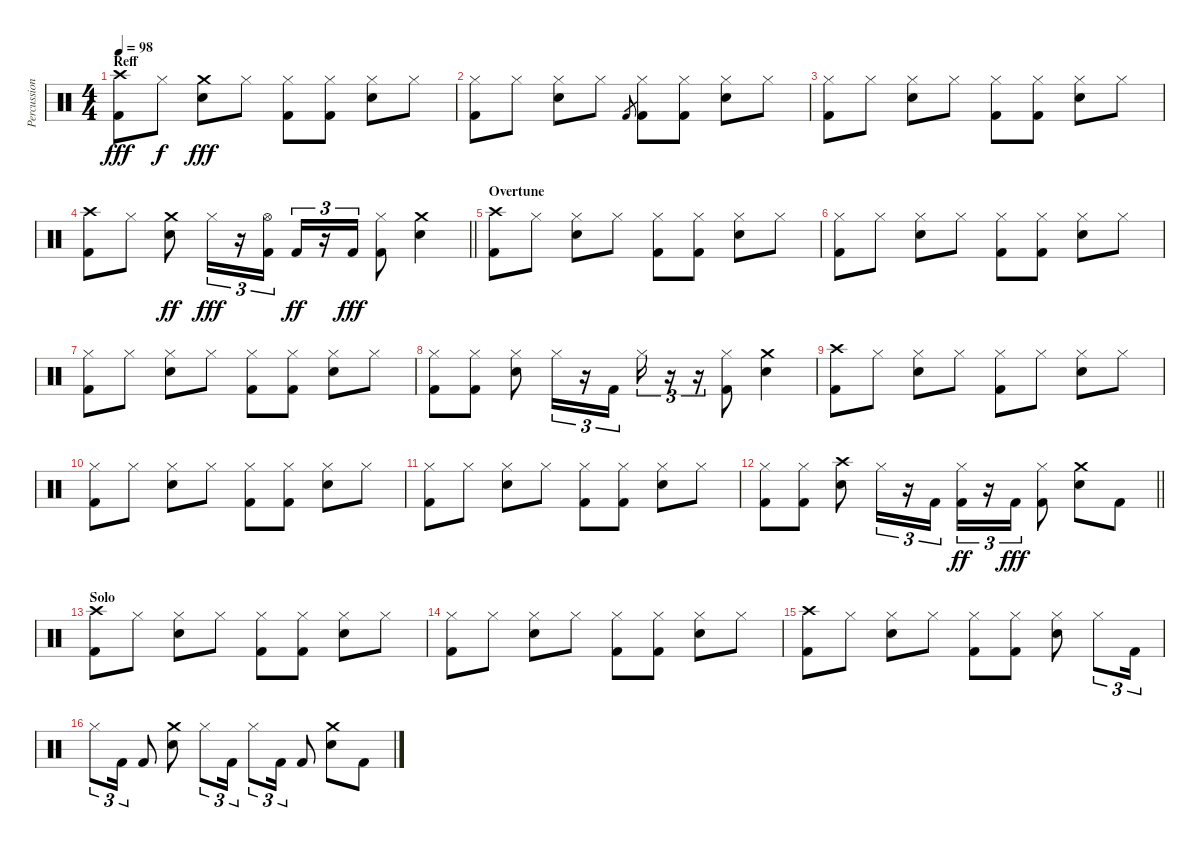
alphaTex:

\track ("Percussion" "Percussion") {instrument percussion}
\staff {score}
\articulation defaults
\ts (4 4)
\section ("" "Reff")
\tempo 98
\clef neutral
\ks c
("Crash high (hit)" "Kick (hit) 2").8{dy fff} "Hi-Hat (closed)".8{dy f} ("Crash medium (hit)" "Snare (hit) 2").8{dy fff} "Hi-Hat (closed)".8 ("Hi-Hat (closed)" "Kick (hit) 2").8 ("Hi-Hat (closed)" "Kick (hit) 2").8 ("Hi-Hat (closed)" "Snare (hit) 2").8 "Hi-Hat (closed)".8 |
("Hi-Hat (closed)" "Kick (hit) 2").8 "Hi-Hat (closed)".8 ("Hi-Hat (closed)" "Snare (hit) 2").8 "Hi-Hat (closed)".8 "Kick (hit) 2".8{gr} ("Hi-Hat (closed)" "Kick (hit) 2").8 ("Hi-Hat (closed)" "Kick (hit) 2").8 ("Hi-Hat (closed)" "Snare (hit) 2").8 "Hi-Hat (closed)".8 |
("Hi-Hat (closed)" "Kick (hit) 2").8 "Hi-Hat (closed)".8 ("Hi-Hat (closed)" "Snare (hit) 2").8 "Hi-Hat (closed)".8 ("Hi-Hat (closed)" "Kick (hit) 2").8 ("Hi-Hat (closed)" "Kick (hit) 2").8 ("Hi-Hat (closed)" "Snare (hit) 2").8 "Hi-Hat (closed)".8 |
\barLineRight lightlight
("Crash high (hit)" "Kick (hit) 2").8 "Hi-Hat (closed)".8 ("Crash medium (hit)" "Snare (hit) 2").8{dy ff} "Hi-Hat (closed)".16{tu (3 2) dy fff} r.16{tu (3 2)} ("Hi-Hat (open)" "Kick (hit) 2").16{tu (3 2)} "Kick (hit) 2".16{tu (3 2) dy ff} r.16{tu (3 2)} "Kick (hit) 2".16{tu (3 2) dy fff} ("Hi-Hat (closed)" "Kick (hit) 2").8 ("Crash medium (hit)" "Snare (hit) 2").4 |
\section ("" "Overtune")
("Crash high (hit)" "Kick (hit) 2").8 "Hi-Hat (closed)".8 ("Hi-Hat (closed)" "Snare (hit) 2").8 "Hi-Hat (closed)".8 ("Hi-Hat (closed)" "Kick (hit) 2").8 ("Hi-Hat (closed)" "Kick (hit) 2").8 ("Hi-Hat (closed)" "Snare (hit) 2").8 "Hi-Hat (closed)".8 |
("Hi-Hat (closed)" "Kick (hit) 2").8 "Hi-Hat (closed)".8 ("Hi-Hat (closed)" "Snare (hit) 2").8 "Hi-Hat (closed)".8 ("Hi-Hat (closed)" "Kick (hit) 2").8 ("Hi-Hat (closed)" "Kick (hit) 2").8 ("Hi-Hat (closed)" "Snare (hit) 2").8 "Hi-Hat (closed)".8 |
("Hi-Hat (closed)" "Kick (hit) 2").8 "Hi-Hat (closed)".8 ("Hi-Hat (closed)" "Snare (hit) 2").8 "Hi-Hat (closed)".8 ("Hi-Hat (closed)" "Kick (hit) 2").8 ("Hi-Hat (closed)" "Kick (hit) 2").8 ("Hi-Hat (closed)" "Snare (hit) 2").8 "Hi-Hat (closed)".8 |
("Hi-Hat (closed)" "Kick (hit) 2").8 ("Hi-Hat (closed)" "Kick (hit) 2").8 ("Hi-Hat (closed)" "Snare (hit) 2").8 "Hi-Hat (closed)".16{tu (3 2)} r.16{tu (3 2)} "Kick (hit) 2".16{tu (3 2)} "Hi-Hat (closed)".16{tu (3 2)} r.16{tu (3 2)} r.16{tu (3 2)} ("Hi-Hat (closed)" "Kick (hit) 2").8 ("Crash medium (hit)" "Snare (hit) 2").4 |
("Crash high (hit)" "Kick (hit) 2").8 "Hi-Hat (closed)".8 ("Hi-Hat (closed)" "Snare (hit) 2").8 "Hi-Hat (closed)".8 ("Hi-Hat (closed)" "Kick (hit) 2").8 "Hi-Hat (closed)".8 ("Hi-Hat (closed)" "Snare (hit) 2").8 "Hi-Hat (closed)".8 |
("Hi-Hat (closed)" "Kick (hit) 2").8 "Hi-Hat (closed)".8 ("Hi-Hat (closed)" "Snare (hit) 2").8 "Hi-Hat (closed)".8 ("Hi-Hat (closed)" "Kick (hit) 2").8 ("Hi-Hat (closed)" "Kick (hit) 2").8 ("Hi-Hat (closed)" "Snare (hit) 2").8 "Hi-Hat (closed)".8 |
("Hi-Hat (closed)" "Kick (hit) 2").8 "Hi-Hat (closed)".8 ("Hi-Hat (closed)" "Snare (hit) 2").8 "Hi-Hat (closed)".8 ("Hi-Hat (closed)" "Kick (hit) 2").8 ("Hi-Hat (closed)" "Kick (hit) 2").8 ("Hi-Hat (closed)" "Snare (hit) 2").8 "Hi-Hat (closed)".8 |
\barLineRight lightlight
("Hi-Hat (closed)" "Kick (hit) 2").8 ("Hi-Hat (closed)" "Kick (hit) 2").8 ("Crash high (hit)" "Snare (hit) 2").8 "Hi-Hat (closed)".16{tu (3 2)} r.16{tu (3 2)} "Kick (hit) 2".16{tu (3 2)} ("Hi-Hat (closed)" "Kick (hit) 2").16{tu (3 2) dy ff} r.16{tu (3 2)} "Kick (hit) 2".16{tu (3 2) dy fff} ("Hi-Hat (closed)" "Kick (hit) 2").8 ("Crash medium (hit)" "Snare (hit) 2").8 "Kick (hit) 2".8 |
\section ("" "Solo")
("Crash high (hit)" "Kick (hit) 2").8 "Hi-Hat (closed)".8 ("Hi-Hat (closed)" "Snare (hit) 2").8 "Hi-Hat (closed)".8 ("Hi-Hat (closed)" "Kick (hit) 2").8 ("Hi-Hat (closed)" "Kick (hit) 2").8 ("Hi-Hat (closed)" "Snare (hit) 2").8 "Hi-Hat (closed)".8 |
("Hi-Hat (closed)" "Kick (hit) 2").8 "Hi-Hat (closed)".8 ("Hi-Hat (closed)" "Snare (hit) 2").8 "Hi-Hat (closed)".8 ("Hi-Hat (closed)" "Kick (hit) 2").8 ("Hi-Hat (closed)" "Kick (hit) 2").8 ("Hi-Hat (closed)" "Snare (hit) 2").8 "Hi-Hat (closed)".8 |
("Crash high (hit)" "Kick (hit) 2").8 "Hi-Hat (closed)".8 ("Hi-Hat (closed)" "Snare (hit) 2").8 "Hi-Hat (closed)".8 ("Hi-Hat (closed)" "Kick (hit) 2").8 ("Hi-Hat (closed)" "Kick (hit) 2").8 ("Hi-Hat (closed)" "Snare (hit) 2").8 "Hi-Hat (closed)".8{tu (3 2)} "Kick (hit) 2".16{tu (3 2)} |
"Hi-Hat (closed)".8{tu (3 2)} "Kick (hit) 2".16{tu (3 2)} "Kick (hit) 2".8 ("Crash medium (hit)" "Snare (hit) 2").8 "Hi-Hat (closed)".8{tu (3 2)} "Kick (hit) 2".16{tu (3 2)} "Hi-Hat (closed)".8{tu (3 2)} "Kick (hit) 2".16{tu (3 2)} "Kick (hit) 2".8 ("Crash medium (hit)" "Snare (hit) 2").8 "Kick (hit) 2".8
